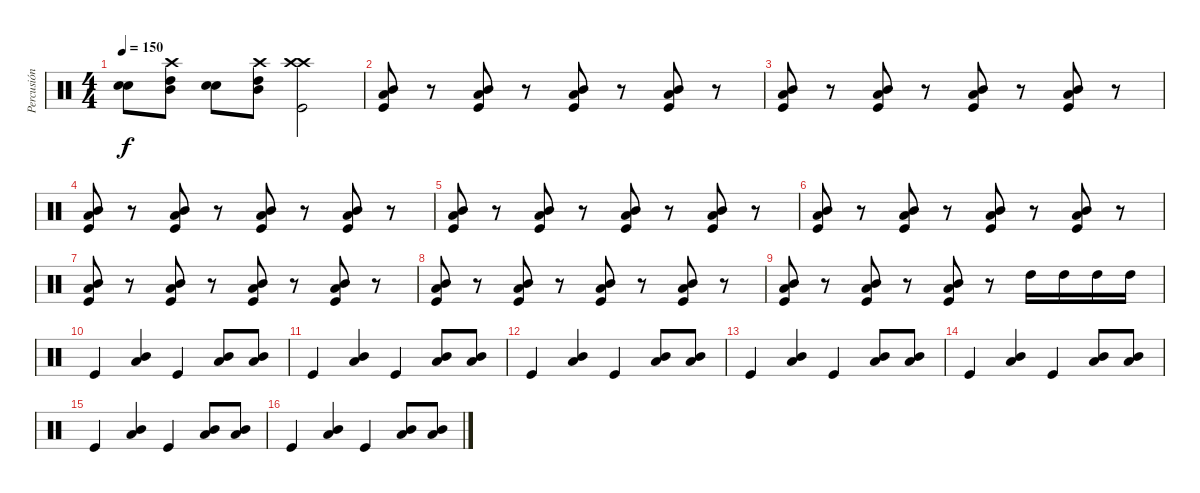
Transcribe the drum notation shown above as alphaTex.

\track ("Percusión" "Percusión") {instrument percussion}
\staff {score}
\articulation defaults
\ts (4 4)
\tempo 150
\clef neutral
\ks c
("Electric Snare (hit)" "Electric Snare (hit)").8{dy f} ("Crash high (hit)" "Mid Tom (hit)" "High Tom (hit)").8 ("Electric Snare (hit)" "Electric Snare (hit)").8 ("Crash high (hit)" "Mid Tom (hit)" "High Tom (hit)").8 ("Crash high (hit)" "Crash high (hit)" "Kick (hit)").2 |
("Low Tom (hit)" "Mid Tom (hit)" "Kick (hit)").8 r.8 ("Low Tom (hit)" "Mid Tom (hit)" "Kick (hit)").8 r.8 ("Low Tom (hit)" "Mid Tom (hit)" "Kick (hit)").8 r.8 ("Low Tom (hit)" "Mid Tom (hit)" "Kick (hit)").8 r.8 |
("Low Tom (hit)" "Mid Tom (hit)" "Kick (hit)").8 r.8 ("Low Tom (hit)" "Mid Tom (hit)" "Kick (hit)").8 r.8 ("Low Tom (hit)" "Mid Tom (hit)" "Kick (hit)").8 r.8 ("Low Tom (hit)" "Mid Tom (hit)" "Kick (hit)").8 r.8 |
("Low Tom (hit)" "Mid Tom (hit)" "Kick (hit)").8 r.8 ("Low Tom (hit)" "Mid Tom (hit)" "Kick (hit)").8 r.8 ("Low Tom (hit)" "Mid Tom (hit)" "Kick (hit)").8 r.8 ("Low Tom (hit)" "Mid Tom (hit)" "Kick (hit)").8 r.8 |
("Low Tom (hit)" "Mid Tom (hit)" "Kick (hit)").8 r.8 ("Low Tom (hit)" "Mid Tom (hit)" "Kick (hit)").8 r.8 ("Low Tom (hit)" "Mid Tom (hit)" "Kick (hit)").8 r.8 ("Low Tom (hit)" "Mid Tom (hit)" "Kick (hit)").8 r.8 |
("Low Tom (hit)" "Mid Tom (hit)" "Kick (hit)").8 r.8 ("Low Tom (hit)" "Mid Tom (hit)" "Kick (hit)").8 r.8 ("Low Tom (hit)" "Mid Tom (hit)" "Kick (hit)").8 r.8 ("Low Tom (hit)" "Mid Tom (hit)" "Kick (hit)").8 r.8 |
("Low Tom (hit)" "Mid Tom (hit)" "Kick (hit)").8 r.8 ("Low Tom (hit)" "Mid Tom (hit)" "Kick (hit)").8 r.8 ("Low Tom (hit)" "Mid Tom (hit)" "Kick (hit)").8 r.8 ("Low Tom (hit)" "Mid Tom (hit)" "Kick (hit)").8 r.8 |
("Low Tom (hit)" "Mid Tom (hit)" "Kick (hit)").8 r.8 ("Low Tom (hit)" "Mid Tom (hit)" "Kick (hit)").8 r.8 ("Low Tom (hit)" "Mid Tom (hit)" "Kick (hit)").8 r.8 ("Low Tom (hit)" "Mid Tom (hit)" "Kick (hit)").8 r.8 |
("Low Tom (hit)" "Mid Tom (hit)" "Kick (hit)").8 r.8 ("Low Tom (hit)" "Mid Tom (hit)" "Kick (hit)").8 r.8 ("Low Tom (hit)" "Mid Tom (hit)" "Kick (hit)").8 r.8 "High Tom (hit)".16 "High Tom (hit)".16 "High Tom (hit)".16 "High Tom (hit)".16 |
"Kick (hit)".4 ("Low Tom (hit)" "Mid Tom (hit)").4 "Kick (hit)".4 ("Low Tom (hit)" "Mid Tom (hit)").8 ("Low Tom (hit)" "Mid Tom (hit)").8 |
"Kick (hit)".4 ("Low Tom (hit)" "Mid Tom (hit)").4 "Kick (hit)".4 ("Low Tom (hit)" "Mid Tom (hit)").8 ("Low Tom (hit)" "Mid Tom (hit)").8 |
"Kick (hit)".4 ("Low Tom (hit)" "Mid Tom (hit)").4 "Kick (hit)".4 ("Low Tom (hit)" "Mid Tom (hit)").8 ("Low Tom (hit)" "Mid Tom (hit)").8 |
"Kick (hit)".4 ("Low Tom (hit)" "Mid Tom (hit)").4 "Kick (hit)".4 ("Low Tom (hit)" "Mid Tom (hit)").8 ("Low Tom (hit)" "Mid Tom (hit)").8 |
"Kick (hit)".4 ("Low Tom (hit)" "Mid Tom (hit)").4 "Kick (hit)".4 ("Low Tom (hit)" "Mid Tom (hit)").8 ("Low Tom (hit)" "Mid Tom (hit)").8 |
"Kick (hit)".4 ("Low Tom (hit)" "Mid Tom (hit)").4 "Kick (hit)".4 ("Low Tom (hit)" "Mid Tom (hit)").8 ("Low Tom (hit)" "Mid Tom (hit)").8 |
"Kick (hit)".4 ("Low Tom (hit)" "Mid Tom (hit)").4 "Kick (hit)".4 ("Low Tom (hit)" "Mid Tom (hit)").8 ("Low Tom (hit)" "Mid Tom (hit)").8
